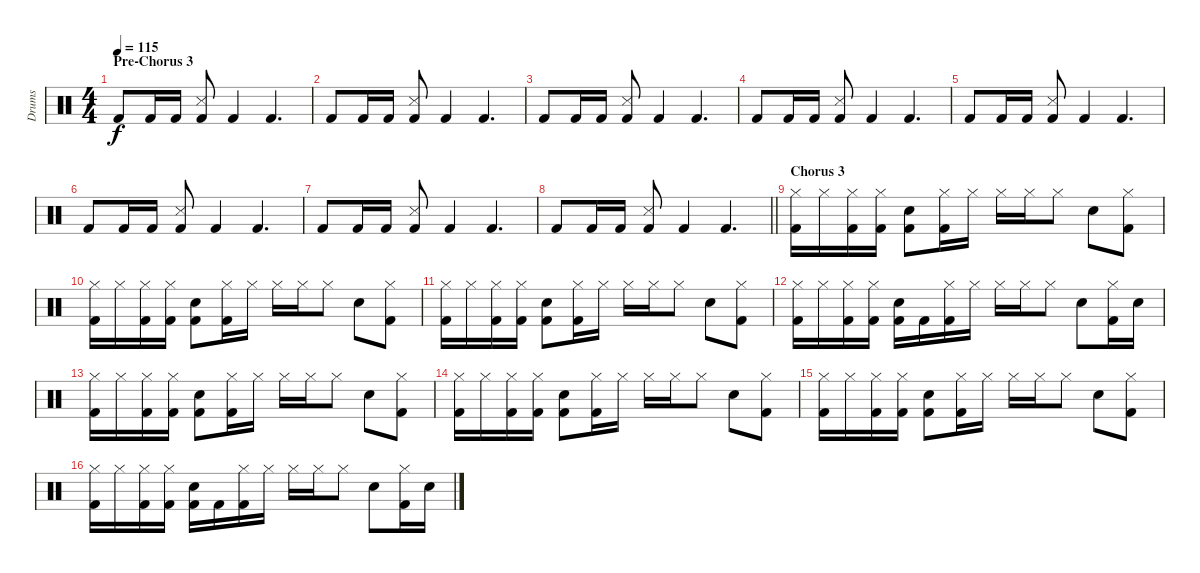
\track ("Drums" "Drums") {instrument percussion}
\staff {score}
\articulation defaults
\ts (4 4)
\section ("" "Pre-Chorus 3")
\tempo 115
\clef neutral
\ks c "Kick (hit) 2".8{dy f} "Kick (hit) 2".16 "Kick (hit) 2".16
("Snare (side stick) 3" "Kick (hit) 2").8 "Kick (hit) 2".4 "Kick (hit) 2".4{d} |
"Kick (hit) 2".8 "Kick (hit) 2".16 "Kick (hit) 2".16 ("Snare (side stick) 3" "Kick (hit) 2").8 "Kick (hit) 2".4 "Kick (hit) 2".4{d} |
"Kick (hit) 2".8 "Kick (hit) 2".16 "Kick (hit) 2".16 ("Snare (side stick) 3" "Kick (hit) 2").8 "Kick (hit) 2".4 "Kick (hit) 2".4{d} |
"Kick (hit) 2".8 "Kick (hit) 2".16 "Kick (hit) 2".16 ("Snare (side stick) 3" "Kick (hit) 2").8 "Kick (hit) 2".4 "Kick (hit) 2".4{d} |
"Kick (hit) 2".8 "Kick (hit) 2".16 "Kick (hit) 2".16 ("Snare (side stick) 3" "Kick (hit) 2").8 "Kick (hit) 2".4 "Kick (hit) 2".4{d} |
"Kick (hit) 2".8 "Kick (hit) 2".16 "Kick (hit) 2".16 ("Snare (side stick) 3" "Kick (hit) 2").8 "Kick (hit) 2".4 "Kick (hit) 2".4{d} |
"Kick (hit) 2".8 "Kick (hit) 2".16 "Kick (hit) 2".16 ("Snare (side stick) 3" "Kick (hit) 2").8 "Kick (hit) 2".4 "Kick (hit) 2".4{d} |
\barLineRight lightlight "Kick (hit) 2".8 "Kick (hit) 2".16 "Kick (hit) 2".16
("Snare (side stick) 3" "Kick (hit) 2").8 "Kick (hit) 2".4 "Kick (hit) 2".4{d} |
\section ("" "Chorus 3")
("Hi-Hat (closed)" "Kick (hit) 2").16 "Hi-Hat (closed)".16 ("Hi-Hat (closed)" "Kick (hit) 2").16 ("Hi-Hat (closed)" "Kick (hit) 2").16 ("Electric Snare (hit)" "Kick (hit) 2").8 ("Hi-Hat (closed)" "Kick (hit) 2").16 "Hi-Hat (closed)".16 "Hi-Hat (closed)".16 "Hi-Hat (closed)".16 "Hi-Hat (closed)".8 "Electric Snare (hit)".8 ("Hi-Hat (closed)" "Kick (hit) 2").8 |
("Hi-Hat (closed)" "Kick (hit) 2").16 "Hi-Hat (closed)".16 ("Hi-Hat (closed)" "Kick (hit) 2").16 ("Hi-Hat (closed)" "Kick (hit) 2").16 ("Electric Snare (hit)" "Kick (hit) 2").8 ("Hi-Hat (closed)" "Kick (hit) 2").16 "Hi-Hat (closed)".16 "Hi-Hat (closed)".16 "Hi-Hat (closed)".16 "Hi-Hat (closed)".8 "Electric Snare (hit)".8 ("Hi-Hat (closed)" "Kick (hit) 2").8 |
("Hi-Hat (closed)" "Kick (hit) 2").16 "Hi-Hat (closed)".16 ("Hi-Hat (closed)" "Kick (hit) 2").16 ("Hi-Hat (closed)" "Kick (hit) 2").16 ("Electric Snare (hit)" "Kick (hit) 2").8 ("Hi-Hat (closed)" "Kick (hit) 2").16 "Hi-Hat (closed)".16 "Hi-Hat (closed)".16 "Hi-Hat (closed)".16 "Hi-Hat (closed)".8 "Electric Snare (hit)".8 ("Hi-Hat (closed)" "Kick (hit) 2").8 |
("Hi-Hat (closed)" "Kick (hit) 2").16 "Hi-Hat (closed)".16 ("Hi-Hat (closed)" "Kick (hit) 2").16 ("Hi-Hat (closed)" "Kick (hit) 2").16 ("Electric Snare (hit)" "Kick (hit) 2").16 "Kick (hit) 2".16 ("Hi-Hat (closed)" "Kick (hit) 2").16 "Hi-Hat (closed)".16 "Hi-Hat (closed)".16 "Hi-Hat (closed)".16 "Hi-Hat (closed)".8 "Electric Snare (hit)".8 ("Hi-Hat (closed)" "Kick (hit) 2").16 "Electric Snare (hit)".16 |
("Hi-Hat (closed)" "Kick (hit) 2").16 "Hi-Hat (closed)".16 ("Hi-Hat (closed)" "Kick (hit) 2").16 ("Hi-Hat (closed)" "Kick (hit) 2").16 ("Electric Snare (hit)" "Kick (hit) 2").8 ("Hi-Hat (closed)" "Kick (hit) 2").16 "Hi-Hat (closed)".16 "Hi-Hat (closed)".16 "Hi-Hat (closed)".16 "Hi-Hat (closed)".8 "Electric Snare (hit)".8 ("Hi-Hat (closed)" "Kick (hit) 2").8 |
("Hi-Hat (closed)" "Kick (hit) 2").16 "Hi-Hat (closed)".16 ("Hi-Hat (closed)" "Kick (hit) 2").16 ("Hi-Hat (closed)" "Kick (hit) 2").16 ("Electric Snare (hit)" "Kick (hit) 2").8 ("Hi-Hat (closed)" "Kick (hit) 2").16 "Hi-Hat (closed)".16 "Hi-Hat (closed)".16 "Hi-Hat (closed)".16 "Hi-Hat (closed)".8 "Electric Snare (hit)".8 ("Hi-Hat (closed)" "Kick (hit) 2").8 |
("Hi-Hat (closed)" "Kick (hit) 2").16 "Hi-Hat (closed)".16 ("Hi-Hat (closed)" "Kick (hit) 2").16 ("Hi-Hat (closed)" "Kick (hit) 2").16 ("Electric Snare (hit)" "Kick (hit) 2").8 ("Hi-Hat (closed)" "Kick (hit) 2").16 "Hi-Hat (closed)".16 "Hi-Hat (closed)".16 "Hi-Hat (closed)".16 "Hi-Hat (closed)".8 "Electric Snare (hit)".8 ("Hi-Hat (closed)" "Kick (hit) 2").8 |
("Hi-Hat (closed)" "Kick (hit) 2").16 "Hi-Hat (closed)".16 ("Hi-Hat (closed)" "Kick (hit) 2").16 ("Hi-Hat (closed)" "Kick (hit) 2").16 ("Electric Snare (hit)" "Kick (hit) 2").16 "Kick (hit) 2".16 ("Hi-Hat (closed)" "Kick (hit) 2").16 "Hi-Hat (closed)".16 "Hi-Hat (closed)".16 "Hi-Hat (closed)".16 "Hi-Hat (closed)".8 "Electric Snare (hit)".8 ("Hi-Hat (closed)" "Kick (hit) 2").16 "Electric Snare (hit)".16
